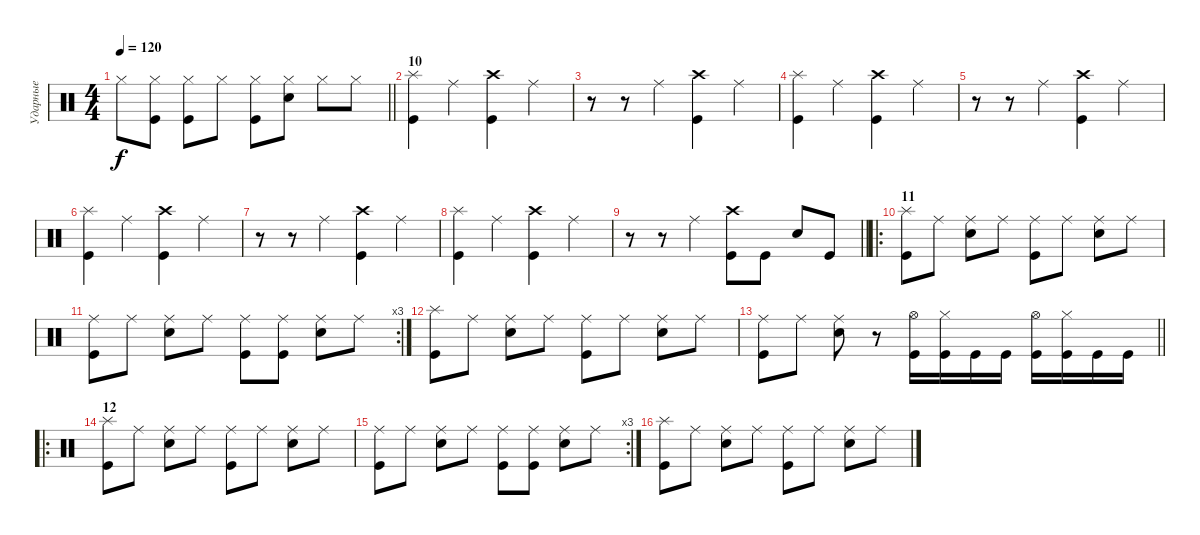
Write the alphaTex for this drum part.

\track ("Ударные" "Ударные") {instrument percussion}
\staff {score}
\articulation defaults
\ts (4 4)
\tempo 120
\clef neutral
\barLineRight lightlight
\ks c "Hi-Hat (closed)".8{dy f}
("Hi-Hat (closed)" "Kick (hit)").8 ("Hi-Hat (closed)" "Kick (hit)").8 "Hi-Hat (closed)".8 ("Hi-Hat (closed)" "Kick (hit)").8 ("Hi-Hat (closed)" "Electric Snare (hit)").8 "Hi-Hat (closed)".8 "Hi-Hat (closed)".8 |
\section ("" "10")
("Splash (hit)" "Kick (hit)").4 "Ride (middle)".4 ("Crash high (hit)" "Kick (hit)").4 "Ride (middle)".4 |
r.8 r.8 "Ride (middle)".4 ("Crash high (hit)" "Kick (hit)").4 "Ride (middle)".4 |
("Splash (hit)" "Kick (hit)").4 "Ride (middle)".4 ("Crash high (hit)" "Kick (hit)").4 "Ride (middle)".4 |
r.8 r.8 "Ride (middle)".4 ("Crash high (hit)" "Kick (hit)").4 "Ride (middle)".4 |
("Splash (hit)" "Kick (hit)").4 "Ride (middle)".4 ("Crash high (hit)" "Kick (hit)").4 "Ride (middle)".4 |
r.8 r.8 "Ride (middle)".4 ("Crash high (hit)" "Kick (hit)").4 "Ride (middle)".4 |
("Splash (hit)" "Kick (hit)").4 "Ride (middle)".4 ("Crash high (hit)" "Kick (hit)").4 "Ride (middle)".4 |
\barLineRight lightlight
r.8 r.8 "Ride (middle)".4 ("Crash high (hit)" "Kick (hit)").8 "Kick (hit)".8 "Electric Snare (hit)".8 "Kick (hit)".8 |
\ro
\section ("" "11")
("Splash (hit)" "Kick (hit)").8 "Ride (middle)".8 ("Ride (middle)" "Electric Snare (hit)").8 "Ride (middle)".8 ("Ride (middle)" "Kick (hit)").8 "Ride (middle)".8 ("Ride (middle)" "Electric Snare (hit)").8 "Ride (middle)".8 |
\rc 3
("Ride (middle)" "Kick (hit)").8 "Ride (middle)".8 ("Ride (middle)" "Electric Snare (hit)").8 "Ride (middle)".8 ("Ride (middle)" "Kick (hit)").8 ("Ride (middle)" "Kick (hit)").8 ("Ride (middle)" "Electric Snare (hit)").8 "Ride (middle)".8 |
("Splash (hit)" "Kick (hit)").8 "Ride (middle)".8 ("Ride (middle)" "Electric Snare (hit)").8 "Ride (middle)".8 ("Ride (middle)" "Kick (hit)").8 "Ride (middle)".8 ("Ride (middle)" "Electric Snare (hit)").8 "Ride (middle)".8 |
\barLineRight lightlight
("Ride (middle)" "Kick (hit)").8 "Ride (middle)".8 ("Ride (middle)" "Electric Snare (hit)").8 r.8 ("Hi-Hat (open)" "Kick (hit)").16 ("Hi-Hat (closed)" "Kick (hit)").16 "Kick (hit)".16 "Kick (hit)".16 ("Hi-Hat (open)" "Kick (hit)").16 ("Hi-Hat (closed)" "Kick (hit)").16 "Kick (hit)".16 "Kick (hit)".16 |
\ro
\section ("" "12")
("Splash (hit)" "Kick (hit)").8 "Ride (middle)".8 ("Ride (middle)" "Electric Snare (hit)").8 "Ride (middle)".8 ("Ride (middle)" "Kick (hit)").8 "Ride (middle)".8 ("Ride (middle)" "Electric Snare (hit)").8 "Ride (middle)".8 |
\rc 3
("Ride (middle)" "Kick (hit)").8 "Ride (middle)".8 ("Ride (middle)" "Electric Snare (hit)").8 "Ride (middle)".8 ("Ride (middle)" "Kick (hit)").8 ("Ride (middle)" "Kick (hit)").8 ("Ride (middle)" "Electric Snare (hit)").8 "Ride (middle)".8 |
("Splash (hit)" "Kick (hit)").8 "Ride (middle)".8 ("Ride (middle)" "Electric Snare (hit)").8 "Ride (middle)".8 ("Ride (middle)" "Kick (hit)").8 "Ride (middle)".8 ("Ride (middle)" "Electric Snare (hit)").8 "Ride (middle)".8
